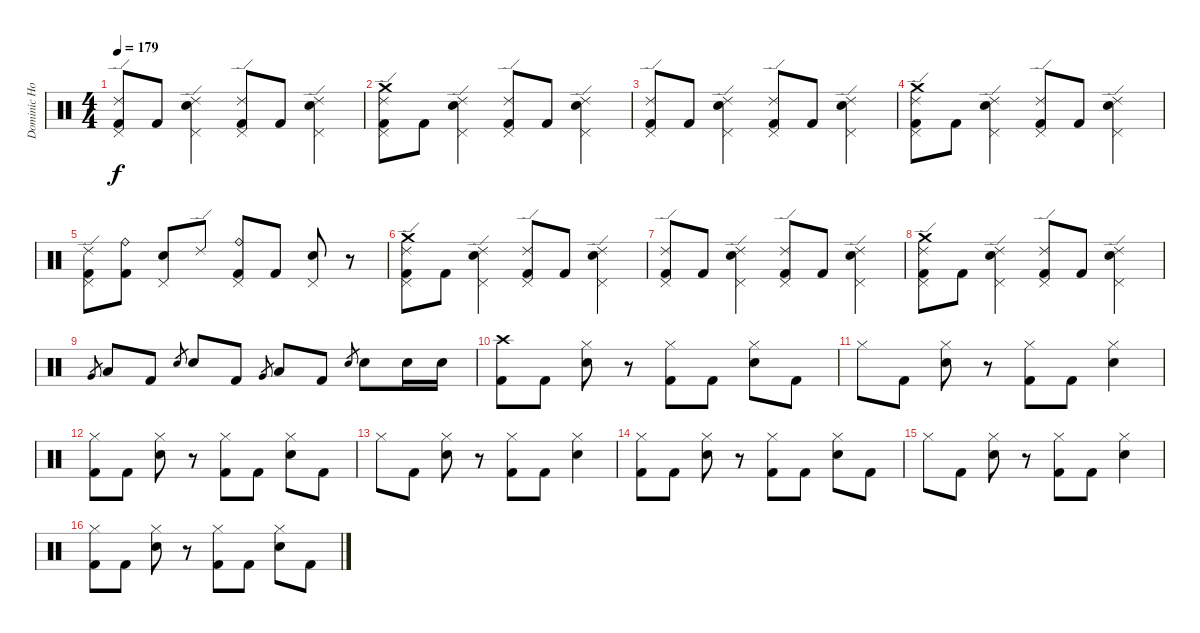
\track ("Dominic Howard" "Dominic Ho") {instrument percussion}
\staff {score}
\articulation defaults
\ts (4 4)
\tempo 179
\clef neutral
\ks c
("Ride (edge) 2" "Pedal Hi-Hat (hit)" "Kick (hit) 2").8{dy f} "Kick (hit) 2".8 ("Ride (edge) 2" "Electric Snare (hit)" "Pedal Hi-Hat (hit)").4 ("Ride (edge) 2" "Pedal Hi-Hat (hit)" "Kick (hit) 2").8 "Kick (hit) 2".8 ("Ride (edge) 2" "Electric Snare (hit)" "Pedal Hi-Hat (hit)").4 |
("Crash medium (hit)" "Ride (edge) 2" "Pedal Hi-Hat (hit)" "Kick (hit) 2").8 "Kick (hit) 2".8 ("Ride (edge) 2" "Electric Snare (hit)" "Pedal Hi-Hat (hit)").4 ("Ride (edge) 2" "Pedal Hi-Hat (hit)" "Kick (hit) 2").8 "Kick (hit) 2".8 ("Ride (edge) 2" "Electric Snare (hit)" "Pedal Hi-Hat (hit)").4 |
("Ride (edge) 2" "Pedal Hi-Hat (hit)" "Kick (hit) 2").8 "Kick (hit) 2".8 ("Ride (edge) 2" "Electric Snare (hit)" "Pedal Hi-Hat (hit)").4 ("Ride (edge) 2" "Pedal Hi-Hat (hit)" "Kick (hit) 2").8 "Kick (hit) 2".8 ("Ride (edge) 2" "Electric Snare (hit)" "Pedal Hi-Hat (hit)").4 |
("Crash medium (hit)" "Ride (edge) 2" "Pedal Hi-Hat (hit)" "Kick (hit) 2").8 "Kick (hit) 2".8 ("Ride (edge) 2" "Electric Snare (hit)" "Pedal Hi-Hat (hit)").4 ("Ride (edge) 2" "Pedal Hi-Hat (hit)" "Kick (hit) 2").8 "Kick (hit) 2".8 ("Ride (edge) 2" "Electric Snare (hit)" "Pedal Hi-Hat (hit)").4 |
("Ride (edge) 2" "Pedal Hi-Hat (hit)" "Kick (hit) 2").8 ("Ride (bell)" "Kick (hit) 2").8 ("Electric Snare (hit)" "Pedal Hi-Hat (hit)").8 "Ride (edge) 2".8 ("Ride (bell)" "Pedal Hi-Hat (hit)" "Kick (hit) 2").8 "Kick (hit) 2".8 ("Electric Snare (hit)" "Pedal Hi-Hat (hit)").8 r.8 |
("Crash medium (hit)" "Ride (edge) 2" "Pedal Hi-Hat (hit)" "Kick (hit) 2").8 "Kick (hit) 2".8 ("Ride (edge) 2" "Electric Snare (hit)" "Pedal Hi-Hat (hit)").4 ("Ride (edge) 2" "Pedal Hi-Hat (hit)" "Kick (hit) 2").8 "Kick (hit) 2".8 ("Ride (edge) 2" "Electric Snare (hit)" "Pedal Hi-Hat (hit)").4 |
("Ride (edge) 2" "Pedal Hi-Hat (hit)" "Kick (hit) 2").8 "Kick (hit) 2".8 ("Ride (edge) 2" "Electric Snare (hit)" "Pedal Hi-Hat (hit)").4 ("Ride (edge) 2" "Pedal Hi-Hat (hit)" "Kick (hit) 2").8 "Kick (hit) 2".8 ("Ride (edge) 2" "Electric Snare (hit)" "Pedal Hi-Hat (hit)").4 |
("Crash medium (hit)" "Ride (edge) 2" "Pedal Hi-Hat (hit)" "Kick (hit) 2").8 "Kick (hit) 2".8 ("Ride (edge) 2" "Electric Snare (hit)" "Pedal Hi-Hat (hit)").4 ("Ride (edge) 2" "Pedal Hi-Hat (hit)" "Kick (hit) 2").8 "Kick (hit) 2".8 ("Ride (edge) 2" "Electric Snare (hit)" "Pedal Hi-Hat (hit)").4 |
"Very Low Tom (hit)".8{gr} "Low Floor Tom (hit)".8 "Kick (hit) 2".8 "Electric Snare (hit)".8{gr} "Electric Snare (hit)".8 "Kick (hit) 2".8 "Very Low Tom (hit)".8{gr} "Low Floor Tom (hit)".8 "Kick (hit) 2".8 "Electric Snare (hit)".8{gr} "Electric Snare (hit)".8 "Electric Snare (hit)".16 "Electric Snare (hit)".16 |
("Crash high (hit)" "Kick (hit) 2").8 "Kick (hit) 2".8 ("Hi-Hat (closed)" "Electric Snare (hit)").8 r.8 ("Hi-Hat (closed)" "Kick (hit) 2").8 "Kick (hit) 2".8 ("Hi-Hat (closed)" "Electric Snare (hit)").8 "Kick (hit) 2".8 |
"Hi-Hat (closed)".8 "Kick (hit) 2".8 ("Hi-Hat (closed)" "Electric Snare (hit)").8 r.8 ("Hi-Hat (closed)" "Kick (hit) 2").8 "Kick (hit) 2".8 ("Hi-Hat (closed)" "Electric Snare (hit)").4 |
("Hi-Hat (closed)" "Kick (hit) 2").8 "Kick (hit) 2".8 ("Hi-Hat (closed)" "Electric Snare (hit)").8 r.8 ("Hi-Hat (closed)" "Kick (hit) 2").8 "Kick (hit) 2".8 ("Hi-Hat (closed)" "Electric Snare (hit)").8 "Kick (hit) 2".8 |
"Hi-Hat (closed)".8 "Kick (hit) 2".8 ("Hi-Hat (closed)" "Electric Snare (hit)").8 r.8 ("Hi-Hat (closed)" "Kick (hit) 2").8 "Kick (hit) 2".8 ("Hi-Hat (closed)" "Electric Snare (hit)").4 |
("Hi-Hat (closed)" "Kick (hit) 2").8 "Kick (hit) 2".8 ("Hi-Hat (closed)" "Electric Snare (hit)").8 r.8 ("Hi-Hat (closed)" "Kick (hit) 2").8 "Kick (hit) 2".8 ("Hi-Hat (closed)" "Electric Snare (hit)").8 "Kick (hit) 2".8 |
"Hi-Hat (closed)".8 "Kick (hit) 2".8 ("Hi-Hat (closed)" "Electric Snare (hit)").8 r.8 ("Hi-Hat (closed)" "Kick (hit) 2").8 "Kick (hit) 2".8 ("Hi-Hat (closed)" "Electric Snare (hit)").4 |
("Hi-Hat (closed)" "Kick (hit) 2").8 "Kick (hit) 2".8 ("Hi-Hat (closed)" "Electric Snare (hit)").8 r.8 ("Hi-Hat (closed)" "Kick (hit) 2").8 "Kick (hit) 2".8 ("Hi-Hat (closed)" "Electric Snare (hit)").8 "Kick (hit) 2".8
